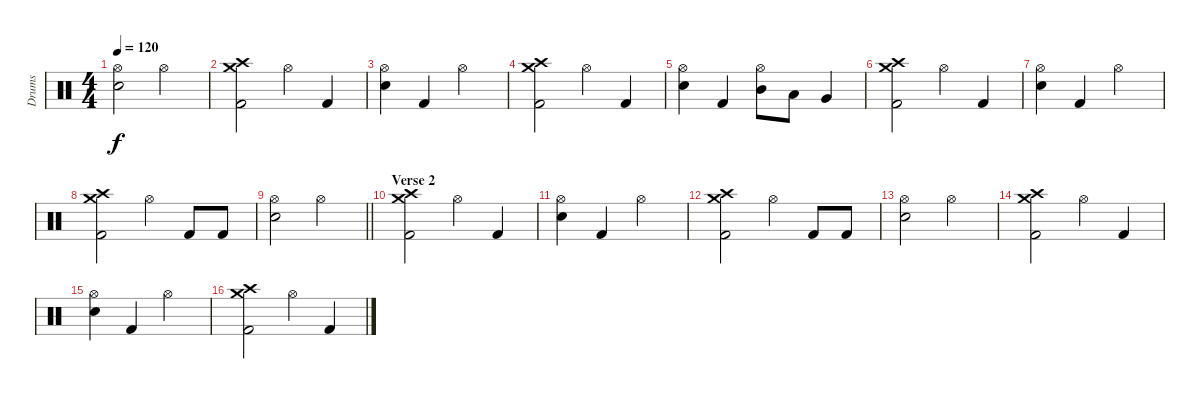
\track ("Drums" "Drums") {instrument percussion}
\staff {score}
\articulation defaults
\ts (4 4)
\tempo 120
\clef neutral
\ks c
("Hi-Hat (open)" "Snare (hit) 2").2{dy f} "Hi-Hat (open)".2 |
("Crash high (hit)" "Crash medium (hit)" "Kick (hit) 2").2 "Hi-Hat (open)".4 "Kick (hit) 2".4 |
("Hi-Hat (open)" "Snare (hit) 2").4 "Kick (hit) 2".4 "Hi-Hat (open)".2 |
("Crash high (hit)" "Crash medium (hit)" "Kick (hit) 2").2 "Hi-Hat (open)".4 "Kick (hit) 2".4 |
("Hi-Hat (open)" "Snare (hit) 2").4 "Kick (hit) 2".4 ("Hi-Hat (open)" "Mid Tom (hit)").8 "Low Tom (hit)".8 "Very Low Tom (hit)".4 |
("Crash high (hit)" "Crash medium (hit)" "Kick (hit) 2").2 "Hi-Hat (open)".4 "Kick (hit) 2".4 |
("Hi-Hat (open)" "Snare (hit) 2").4 "Kick (hit) 2".4 "Hi-Hat (open)".2 |
("Crash high (hit)" "Crash medium (hit)" "Kick (hit) 2").2 "Hi-Hat (open)".4 "Kick (hit) 2".8 "Kick (hit) 2".8 |
\barLineRight lightlight
("Hi-Hat (open)" "Snare (hit) 2").2 "Hi-Hat (open)".2 |
\section ("" "Verse 2")
("Crash high (hit)" "Crash medium (hit)" "Kick (hit) 2").2 "Hi-Hat (open)".4 "Kick (hit) 2".4 |
("Hi-Hat (open)" "Snare (hit) 2").4 "Kick (hit) 2".4 "Hi-Hat (open)".2 |
("Crash high (hit)" "Crash medium (hit)" "Kick (hit) 2").2 "Hi-Hat (open)".4 "Kick (hit) 2".8 "Kick (hit) 2".8 |
("Hi-Hat (open)" "Snare (hit) 2").2 "Hi-Hat (open)".2 |
("Crash high (hit)" "Crash medium (hit)" "Kick (hit) 2").2 "Hi-Hat (open)".4 "Kick (hit) 2".4 |
("Hi-Hat (open)" "Snare (hit) 2").4 "Kick (hit) 2".4 "Hi-Hat (open)".2 |
("Crash high (hit)" "Crash medium (hit)" "Kick (hit) 2").2 "Hi-Hat (open)".4 "Kick (hit) 2".4
